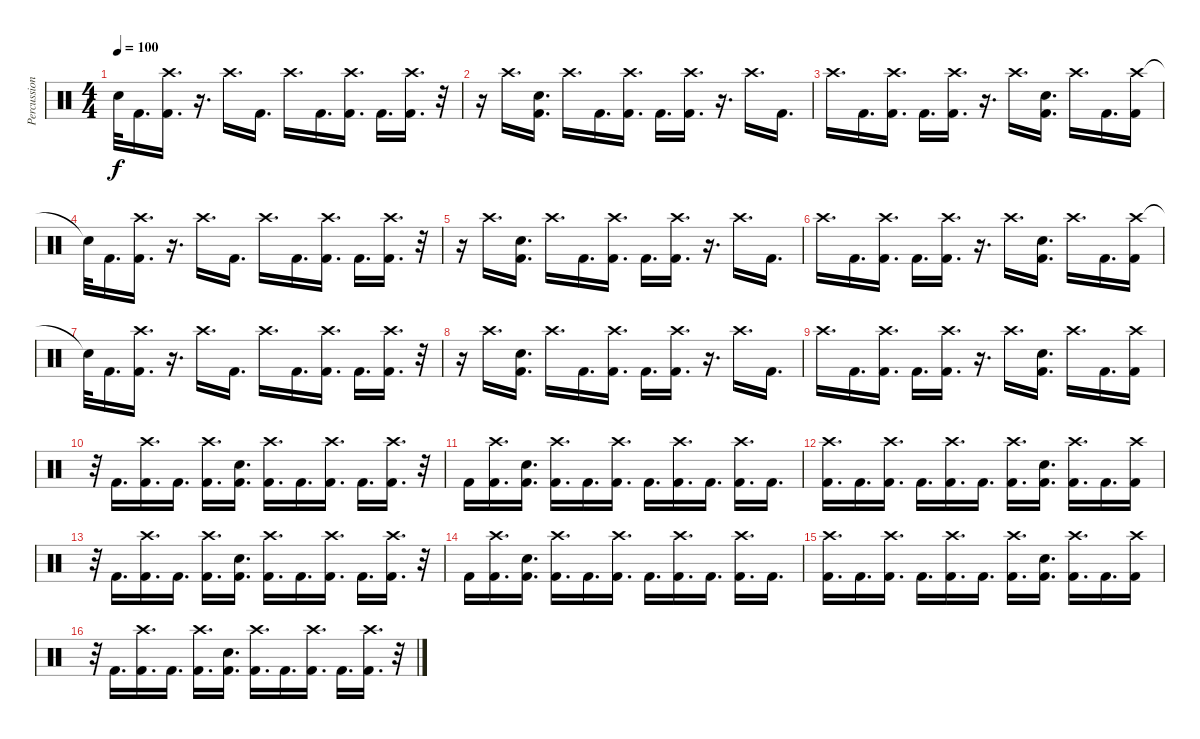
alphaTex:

\track ("Percussion" "Percussion") {instrument percussion}
\staff {score}
\articulation defaults
\ts (4 4)
\tempo 100
\clef neutral
\ks c "Snare (hit)"{t}.32{dy f} "Kick (hit) 2".16{d}
("Crash high (hit)" "Kick (hit) 2").16{d} r.16{d} "Crash high (hit)".16{d} "Kick (hit) 2".16{d} "Crash high (hit)".16{d} "Kick (hit) 2".16{d} ("Crash high (hit)" "Kick (hit) 2").16{d} "Kick (hit) 2".16{d} ("Crash high (hit)" "Kick (hit) 2").16{d} r.32 |
r.16 "Crash high (hit)".16{d} ("Snare (hit) 2" "Kick (hit) 2").16{d} "Crash high (hit)".16{d} "Kick (hit) 2".16{d} ("Crash high (hit)" "Kick (hit) 2").16{d} "Kick (hit) 2".16{d} ("Crash high (hit)" "Kick (hit) 2").16{d} r.16{d} "Crash high (hit)".16{d} "Kick (hit) 2".16{d} |
"Crash high (hit)".16{d} "Kick (hit) 2".16{d} ("Crash high (hit)" "Kick (hit) 2").16{d} "Kick (hit) 2".16{d} ("Crash high (hit)" "Kick (hit) 2").16{d} r.16{d} "Crash high (hit)".16{d} ("Snare (hit) 2" "Kick (hit) 2").16{d} "Crash high (hit)".16{d} "Kick (hit) 2".16{d} ("Crash high (hit)" "Kick (hit) 2").16 |
"Snare (hit)"{t}.32 "Kick (hit) 2".16{d} ("Crash high (hit)" "Kick (hit) 2").16{d} r.16{d} "Crash high (hit)".16{d} "Kick (hit) 2".16{d} "Crash high (hit)".16{d} "Kick (hit) 2".16{d} ("Crash high (hit)" "Kick (hit) 2").16{d} "Kick (hit) 2".16{d} ("Crash high (hit)" "Kick (hit) 2").16{d} r.32 |
r.16 "Crash high (hit)".16{d} ("Snare (hit) 2" "Kick (hit) 2").16{d} "Crash high (hit)".16{d} "Kick (hit) 2".16{d} ("Crash high (hit)" "Kick (hit) 2").16{d} "Kick (hit) 2".16{d} ("Crash high (hit)" "Kick (hit) 2").16{d} r.16{d} "Crash high (hit)".16{d} "Kick (hit) 2".16{d} |
"Crash high (hit)".16{d} "Kick (hit) 2".16{d} ("Crash high (hit)" "Kick (hit) 2").16{d} "Kick (hit) 2".16{d} ("Crash high (hit)" "Kick (hit) 2").16{d} r.16{d} "Crash high (hit)".16{d} ("Snare (hit) 2" "Kick (hit) 2").16{d} "Crash high (hit)".16{d} "Kick (hit) 2".16{d} ("Crash high (hit)" "Kick (hit) 2").16 |
"Snare (hit)"{t}.32 "Kick (hit) 2".16{d} ("Crash high (hit)" "Kick (hit) 2").16{d} r.16{d} "Crash high (hit)".16{d} "Kick (hit) 2".16{d} "Crash high (hit)".16{d} "Kick (hit) 2".16{d} ("Crash high (hit)" "Kick (hit) 2").16{d} "Kick (hit) 2".16{d} ("Crash high (hit)" "Kick (hit) 2").16{d} r.32 |
r.16 "Crash high (hit)".16{d} ("Snare (hit) 2" "Kick (hit) 2").16{d} "Crash high (hit)".16{d} "Kick (hit) 2".16{d} ("Crash high (hit)" "Kick (hit) 2").16{d} "Kick (hit) 2".16{d} ("Crash high (hit)" "Kick (hit) 2").16{d} r.16{d} "Crash high (hit)".16{d} "Kick (hit) 2".16{d} |
"Crash high (hit)".16{d} "Kick (hit) 2".16{d} ("Crash high (hit)" "Kick (hit) 2").16{d} "Kick (hit) 2".16{d} ("Crash high (hit)" "Kick (hit) 2").16{d} r.16{d} "Crash high (hit)".16{d} ("Snare (hit) 2" "Kick (hit) 2").16{d} "Crash high (hit)".16{d} "Kick (hit) 2".16{d} ("Crash high (hit)" "Kick (hit) 2").16 |
r.32 "Kick (hit) 2".16{d} ("Crash high (hit)" "Kick (hit) 2").16{d} "Kick (hit) 2".16{d} ("Crash high (hit)" "Kick (hit) 2").16{d} ("Snare (hit) 2" "Kick (hit) 2").16{d} ("Crash high (hit)" "Kick (hit) 2").16{d} "Kick (hit) 2".16{d} ("Crash high (hit)" "Kick (hit) 2").16{d} "Kick (hit) 2".16{d} ("Crash high (hit)" "Kick (hit) 2").16{d} r.32 |
"Kick (hit) 2".16 ("Crash high (hit)" "Kick (hit) 2").16{d} ("Snare (hit) 2" "Kick (hit) 2").16{d} ("Crash high (hit)" "Kick (hit) 2").16{d} "Kick (hit) 2".16{d} ("Crash high (hit)" "Kick (hit) 2").16{d} "Kick (hit) 2".16{d} ("Crash high (hit)" "Kick (hit) 2").16{d} "Kick (hit) 2".16{d} ("Crash high (hit)" "Kick (hit) 2").16{d} "Kick (hit) 2".16{d} |
("Crash high (hit)" "Kick (hit) 2").16{d} "Kick (hit) 2".16{d} ("Crash high (hit)" "Kick (hit) 2").16{d} "Kick (hit) 2".16{d} ("Crash high (hit)" "Kick (hit) 2").16{d} "Kick (hit) 2".16{d} ("Crash high (hit)" "Kick (hit) 2").16{d} ("Snare (hit) 2" "Kick (hit) 2").16{d} ("Crash high (hit)" "Kick (hit) 2").16{d} "Kick (hit) 2".16{d} ("Crash high (hit)" "Kick (hit) 2").16 |
r.32 "Kick (hit) 2".16{d} ("Crash high (hit)" "Kick (hit) 2").16{d} "Kick (hit) 2".16{d} ("Crash high (hit)" "Kick (hit) 2").16{d} ("Snare (hit) 2" "Kick (hit) 2").16{d} ("Crash high (hit)" "Kick (hit) 2").16{d} "Kick (hit) 2".16{d} ("Crash high (hit)" "Kick (hit) 2").16{d} "Kick (hit) 2".16{d} ("Crash high (hit)" "Kick (hit) 2").16{d} r.32 |
"Kick (hit) 2".16 ("Crash high (hit)" "Kick (hit) 2").16{d} ("Snare (hit) 2" "Kick (hit) 2").16{d} ("Crash high (hit)" "Kick (hit) 2").16{d} "Kick (hit) 2".16{d} ("Crash high (hit)" "Kick (hit) 2").16{d} "Kick (hit) 2".16{d} ("Crash high (hit)" "Kick (hit) 2").16{d} "Kick (hit) 2".16{d} ("Crash high (hit)" "Kick (hit) 2").16{d} "Kick (hit) 2".16{d} |
("Crash high (hit)" "Kick (hit) 2").16{d} "Kick (hit) 2".16{d} ("Crash high (hit)" "Kick (hit) 2").16{d} "Kick (hit) 2".16{d} ("Crash high (hit)" "Kick (hit) 2").16{d} "Kick (hit) 2".16{d} ("Crash high (hit)" "Kick (hit) 2").16{d} ("Snare (hit) 2" "Kick (hit) 2").16{d} ("Crash high (hit)" "Kick (hit) 2").16{d} "Kick (hit) 2".16{d} ("Crash high (hit)" "Kick (hit) 2").16 |
r.32 "Kick (hit) 2".16{d} ("Crash high (hit)" "Kick (hit) 2").16{d} "Kick (hit) 2".16{d} ("Crash high (hit)" "Kick (hit) 2").16{d} ("Snare (hit) 2" "Kick (hit) 2").16{d} ("Crash high (hit)" "Kick (hit) 2").16{d} "Kick (hit) 2".16{d} ("Crash high (hit)" "Kick (hit) 2").16{d} "Kick (hit) 2".16{d} ("Crash high (hit)" "Kick (hit) 2").16{d} r.32
